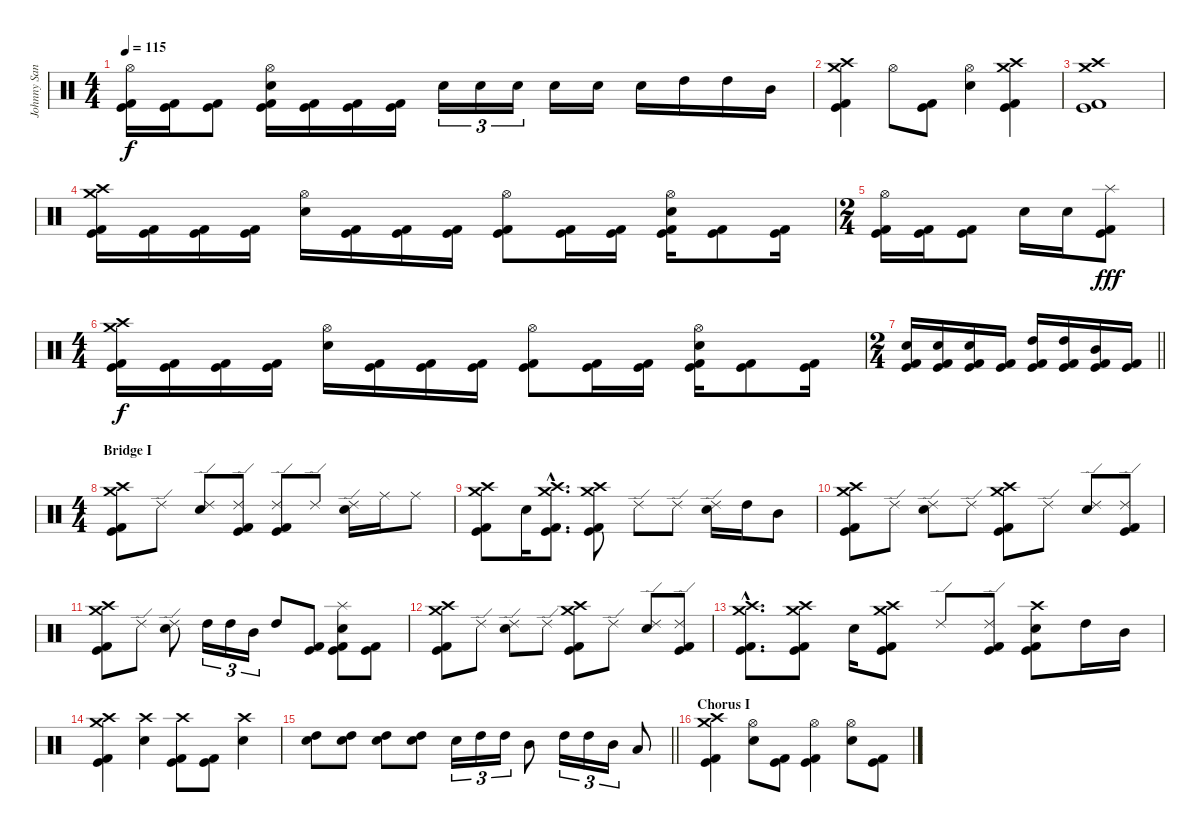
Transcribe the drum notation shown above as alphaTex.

\track ("Johnny Sandin" "Johnny San") {instrument percussion}
\staff {score}
\articulation defaults
\ts (4 4)
\tempo 115
\clef neutral
\ks c
("Hi-Hat (open)" "Kick (hit) 2" "Kick (hit)").16{dy f} ("Kick (hit) 2" "Kick (hit)").16 ("Kick (hit) 2" "Kick (hit)").8 ("Hi-Hat (open)" "Snare (hit) 2" "Kick (hit) 2" "Kick (hit)").16 ("Kick (hit) 2" "Kick (hit)").16 ("Kick (hit) 2" "Kick (hit)").16 ("Kick (hit) 2" "Kick (hit)").16 "Snare (hit) 2".16{tu (3 2)} "Snare (hit) 2".16{tu (3 2)} "Snare (hit) 2".16{tu (3 2)} "Snare (hit) 2".16 "Snare (hit) 2".16 "Snare (hit) 2".16 "High Tom (hit)".16 "High Tom (hit)".16 "Mid Tom (hit)".16 |
("Crash medium (hit)" "Crash high (hit)" "Kick (hit) 2" "Kick (hit)").4 "Hi-Hat (open)".8 ("Kick (hit) 2" "Kick (hit)").8 ("Hi-Hat (open)" "Snare (hit) 2").4 ("Crash medium (hit)" "Crash high (hit)" "Kick (hit) 2" "Kick (hit)").4 |
("Crash medium (hit)" "Crash high (hit)" "Kick (hit) 2" "Kick (hit)").1 |
("Crash medium (hit)" "Crash high (hit)" "Kick (hit) 2" "Kick (hit)").16 ("Kick (hit) 2" "Kick (hit)").16 ("Kick (hit) 2" "Kick (hit)").16 ("Kick (hit) 2" "Kick (hit)").16 ("Hi-Hat (open)" "Snare (hit) 2").16 ("Kick (hit) 2" "Kick (hit)").16 ("Kick (hit) 2" "Kick (hit)").16 ("Kick (hit) 2" "Kick (hit)").16 ("Hi-Hat (open)" "Kick (hit) 2" "Kick (hit)").8 ("Kick (hit) 2" "Kick (hit)").16 ("Kick (hit) 2" "Kick (hit)").16 ("Hi-Hat (open)" "Snare (hit) 2" "Kick (hit) 2" "Kick (hit)").16 ("Kick (hit) 2" "Kick (hit)").8 ("Kick (hit) 2" "Kick (hit)").16 |
\ts (2 4)
("Hi-Hat (open)" "Kick (hit) 2" "Kick (hit)").16 ("Kick (hit) 2" "Kick (hit)").16 ("Kick (hit) 2" "Kick (hit)").8 "Snare (hit) 2".16 "Snare (hit) 2".16 ("Splash (hit)" "Kick (hit) 2" "Kick (hit)").8{dy fff} |
\ts (4 4)
("Crash medium (hit)" "Crash high (hit)" "Kick (hit) 2" "Kick (hit)").16{dy f} ("Kick (hit) 2" "Kick (hit)").16 ("Kick (hit) 2" "Kick (hit)").16 ("Kick (hit) 2" "Kick (hit)").16 ("Hi-Hat (open)" "Snare (hit) 2").16 ("Kick (hit) 2" "Kick (hit)").16 ("Kick (hit) 2" "Kick (hit)").16 ("Kick (hit) 2" "Kick (hit)").16 ("Hi-Hat (open)" "Kick (hit) 2" "Kick (hit)").8 ("Kick (hit) 2" "Kick (hit)").16 ("Kick (hit) 2" "Kick (hit)").16 ("Hi-Hat (open)" "Snare (hit) 2" "Kick (hit) 2" "Kick (hit)").16 ("Kick (hit) 2" "Kick (hit)").8 ("Kick (hit) 2" "Kick (hit)").16 |
\ts (2 4)
\barLineRight lightlight
("Snare (hit) 2" "Kick (hit) 2" "Kick (hit)").16 ("Snare (hit) 2" "Kick (hit) 2" "Kick (hit)").16 ("Snare (hit) 2" "Kick (hit) 2" "Kick (hit)").16 ("Kick (hit) 2" "Kick (hit)").16 ("High Tom (hit)" "Kick (hit) 2" "Kick (hit)").16 ("High Tom (hit)" "Kick (hit) 2" "Kick (hit)").16 ("Mid Tom (hit)" "Kick (hit) 2" "Kick (hit)").16 ("Kick (hit) 2" "Kick (hit)").16 |
\ts (4 4)
\section ("" "Bridge I")
("Crash medium (hit)" "Crash high (hit)" "Kick (hit) 2" "Kick (hit)").8 "Ride (edge) 2".8 ("Ride (edge) 2" "Snare (hit) 2").8 ("Ride (edge) 2" "Kick (hit) 2" "Kick (hit)").8 ("Ride (edge) 2" "Kick (hit) 2" "Kick (hit)").8 "Ride (edge) 2".8 ("Ride (edge) 2" "Snare (hit) 2").16 "Ride (middle)".16 "Ride (middle)".8 |
("Crash medium (hit)" "Crash high (hit)" "Kick (hit) 2" "Kick (hit)").8 "Snare (hit) 2".16 ("Crash medium (hit)"{hac} "Crash high (hit)"{hac} "Kick (hit) 2"{hac} "Kick (hit)"{hac}).8{d} ("Crash medium (hit)" "Crash high (hit)" "Kick (hit) 2" "Kick (hit)").8 "Ride (edge) 2".8 "Ride (edge) 2".8 ("Ride (edge) 2" "Snare (hit) 2").16 "High Tom (hit)".16 "Mid Tom (hit)".8 |
("Crash medium (hit)" "Crash high (hit)" "Kick (hit) 2" "Kick (hit)").8 "Ride (edge) 2".8 ("Ride (edge) 2" "Snare (hit) 2").8 "Ride (edge) 2".8 ("Crash medium (hit)" "Crash high (hit)" "Kick (hit) 2" "Kick (hit)").8 "Ride (edge) 2".8 ("Ride (edge) 2" "Snare (hit) 2").8 ("Ride (edge) 2" "Kick (hit) 2" "Kick (hit)").8 |
("Crash medium (hit)" "Crash high (hit)" "Kick (hit) 2" "Kick (hit)").8 "Ride (edge) 2".8 ("Ride (edge) 2" "Snare (hit) 2").8 "High Tom (hit)".16{tu (3 2)} "High Tom (hit)".16{tu (3 2)} "Mid Tom (hit)".16{tu (3 2)} "High Tom (hit)".8 ("Kick (hit) 2" "Kick (hit)").8 ("Splash (hit)" "Snare (hit) 2" "Kick (hit) 2" "Kick (hit)").8 ("Kick (hit) 2" "Kick (hit)").8 |
("Crash medium (hit)" "Crash high (hit)" "Kick (hit) 2" "Kick (hit)").8 "Ride (edge) 2".8 ("Ride (edge) 2" "Snare (hit) 2").8 "Ride (edge) 2".8 ("Crash medium (hit)" "Crash high (hit)" "Kick (hit) 2" "Kick (hit)").8 "Ride (edge) 2".8 ("Ride (edge) 2" "Snare (hit) 2").8 ("Ride (edge) 2" "Kick (hit) 2" "Kick (hit)").8 |
("Crash medium (hit)"{hac} "Crash high (hit)"{hac} "Kick (hit) 2"{hac} "Kick (hit)"{hac}).8{d} ("Crash medium (hit)" "Crash high (hit)" "Kick (hit) 2" "Kick (hit)").8 "Snare (hit) 2".16 ("Crash medium (hit)" "Crash high (hit)" "Kick (hit) 2" "Kick (hit)").8 "Ride (edge) 2".8 ("Ride (edge) 2" "Kick (hit) 2" "Kick (hit)").8 ("Crash high (hit)" "Snare (hit) 2" "Kick (hit) 2" "Kick (hit)").8 "High Tom (hit)".16 "Mid Tom (hit)".16 |
("Crash medium (hit)" "Crash high (hit)" "Kick (hit) 2" "Kick (hit)").4 ("Crash high (hit)" "Snare (hit) 2").4 ("Crash high (hit)" "Kick (hit) 2" "Kick (hit)").8 ("Kick (hit) 2" "Kick (hit)").8 ("Crash high (hit)" "Snare (hit) 2").4 |
\barLineRight lightlight
("High Tom (hit)" "Snare (hit) 2").8 ("High Tom (hit)" "Snare (hit) 2").8 ("High Tom (hit)" "Snare (hit) 2").8 ("High Tom (hit)" "Snare (hit) 2").8 "Snare (hit) 2".16{tu (3 2)} "High Tom (hit)".16{tu (3 2)} "High Tom (hit)".16{tu (3 2)} "Mid Tom (hit)".8 "High Tom (hit)".16{tu (3 2)} "High Tom (hit)".16{tu (3 2)} "Mid Tom (hit)".16{tu (3 2)} "Low Tom (hit)".8 |
\section ("" "Chorus I")
("Crash medium (hit)" "Crash high (hit)" "Kick (hit) 2" "Kick (hit)").4 ("Hi-Hat (open)" "Snare (hit) 2").8 ("Kick (hit) 2" "Kick (hit)").8 ("Hi-Hat (open)" "Kick (hit) 2" "Kick (hit)").4 ("Hi-Hat (open)" "Snare (hit) 2").8 ("Kick (hit) 2" "Kick (hit)").8
